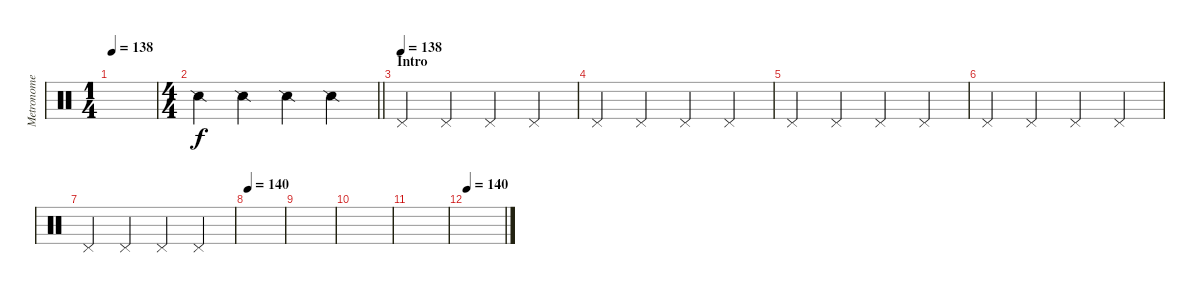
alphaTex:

\track ("Metronome" "Metronome") {instrument percussion}
\staff {score}
\articulation defaults
\ts (1 4)
\tempo 138
\clef neutral
\ks c
|
\ts (4 4)
\barLineRight lightlight "Snare (side stick) 2".4 "Snare (side stick) 2".4 "Snare (side stick) 2".4 "Snare (side stick) 2".4
|
\section ("" "Intro")
\tempo (138)
"Pedal Hi-Hat (hit)".4 "Pedal Hi-Hat (hit)".4 "Pedal Hi-Hat (hit)".4 "Pedal Hi-Hat (hit)".4 |
"Pedal Hi-Hat (hit)".4 "Pedal Hi-Hat (hit)".4 "Pedal Hi-Hat (hit)".4 "Pedal Hi-Hat (hit)".4 |
"Pedal Hi-Hat (hit)".4 "Pedal Hi-Hat (hit)".4 "Pedal Hi-Hat (hit)".4 "Pedal Hi-Hat (hit)".4 |
"Pedal Hi-Hat (hit)".4 "Pedal Hi-Hat (hit)".4 "Pedal Hi-Hat (hit)".4 "Pedal Hi-Hat (hit)".4 |
"Pedal Hi-Hat (hit)".4 "Pedal Hi-Hat (hit)".4 "Pedal Hi-Hat (hit)".4 "Pedal Hi-Hat (hit)".4 |
\tempo 140
|
|
|
|
\tempo 140
